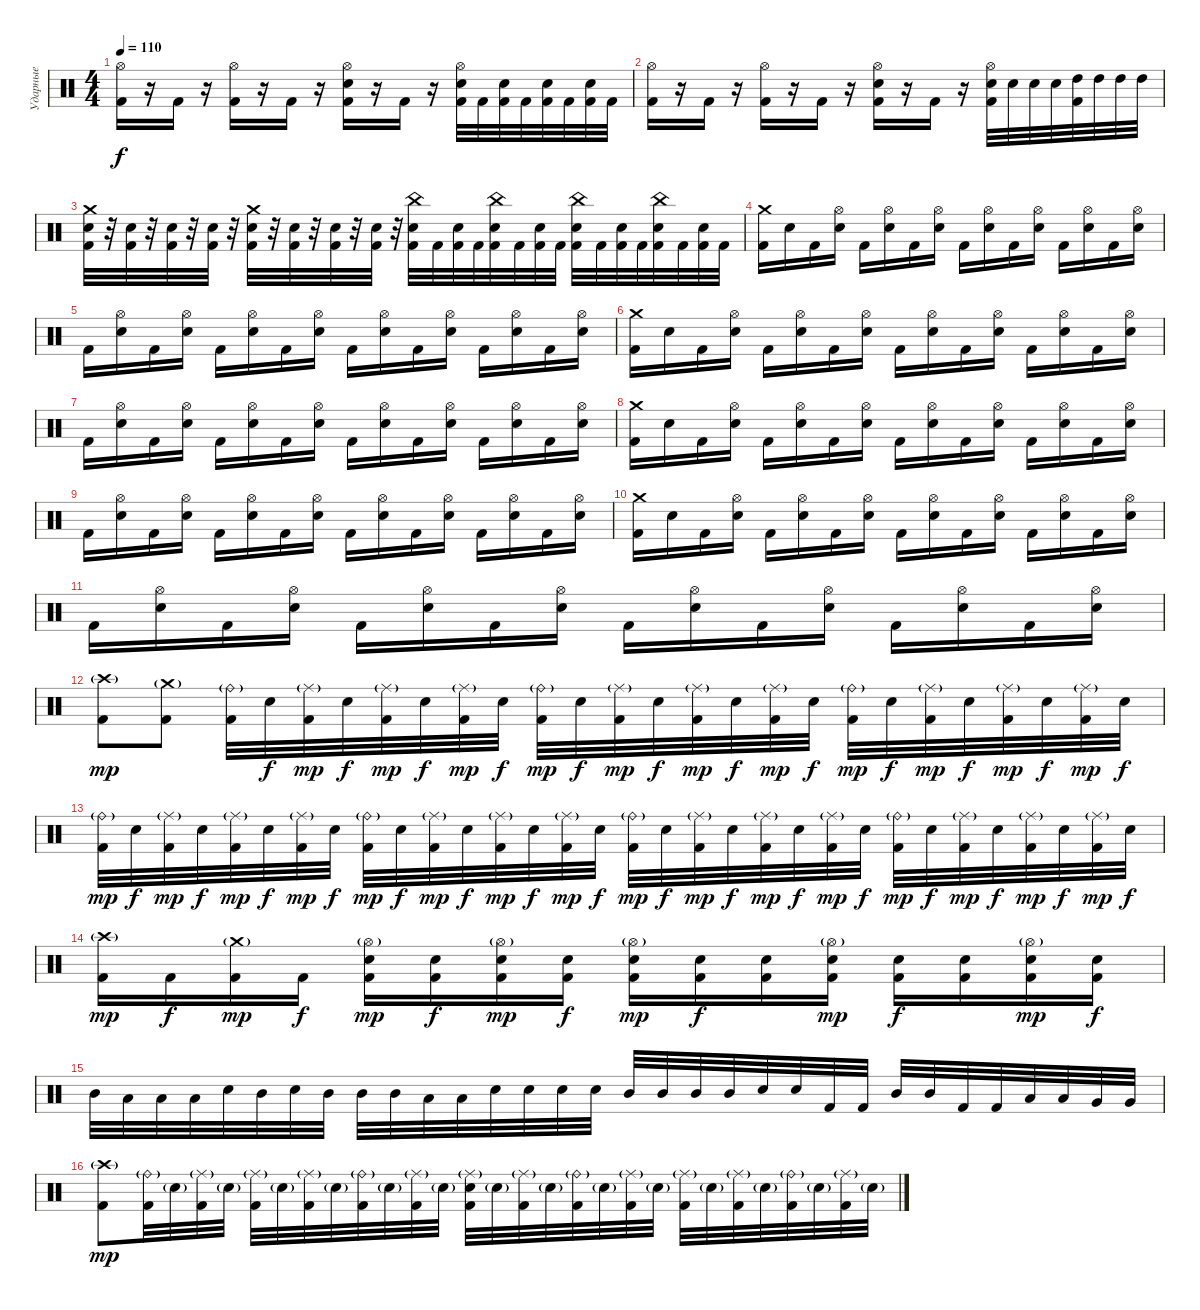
\track ("Ударные" "Ударные") {instrument percussion}
\staff {score}
\articulation defaults
\ts (4 4)
\tempo 110
\clef neutral
\ks c
("Hi-Hat (open)" "Kick (hit) 2").16{dy f} r.16 "Kick (hit) 2".16 r.16 ("Hi-Hat (open)" "Kick (hit) 2").16 r.16 "Kick (hit) 2".16 r.16 ("Hi-Hat (open)" "Electric Snare (hit)" "Kick (hit) 2").16 r.16 "Kick (hit) 2".16 r.16 ("Hi-Hat (open)" "Electric Snare (hit)" "Kick (hit) 2").32 "Kick (hit) 2".32 ("Electric Snare (hit)" "Kick (hit) 2").32 "Kick (hit) 2".32 ("Electric Snare (hit)" "Kick (hit) 2").32 "Kick (hit) 2".32 ("Electric Snare (hit)" "Kick (hit) 2").32 "Kick (hit) 2".32 |
("Hi-Hat (open)" "Kick (hit) 2").16 r.16 "Kick (hit) 2".16 r.16 ("Hi-Hat (open)" "Kick (hit) 2").16 r.16 "Kick (hit) 2".16 r.16 ("Hi-Hat (open)" "Electric Snare (hit)" "Kick (hit) 2").16 r.16 "Kick (hit) 2".16 r.16 ("Hi-Hat (open)" "Electric Snare (hit)" "Kick (hit) 2").32 "Electric Snare (hit)".32 "Electric Snare (hit)".32 "Electric Snare (hit)".32 ("High Tom (hit)" "Kick (hit) 2").32 "High Tom (hit)".32 "High Tom (hit)".32 "High Tom (hit)".32 |
("Crash medium (hit)" "Electric Snare (hit)" "Kick (hit) 2").32 r.32 ("Electric Snare (hit)" "Kick (hit) 2").32 r.32 ("Electric Snare (hit)" "Kick (hit) 2").32 r.32 ("Electric Snare (hit)" "Kick (hit) 2").32 r.32 ("Crash medium (hit)" "Electric Snare (hit)" "Kick (hit) 2").32 r.32 ("Electric Snare (hit)" "Kick (hit) 2").32 r.32 ("Electric Snare (hit)" "Kick (hit) 2").32 r.32 ("Electric Snare (hit)" "Kick (hit) 2").32 r.32 ("China (hit)" "Electric Snare (hit)" "Kick (hit) 2").32 "Kick (hit) 2".32 ("Electric Snare (hit)" "Kick (hit) 2").32 "Kick (hit) 2".32 ("China (hit)" "Electric Snare (hit)" "Kick (hit) 2").32 "Kick (hit) 2".32 ("Electric Snare (hit)" "Kick (hit) 2").32 "Kick (hit) 2".32 ("China (hit)" "Electric Snare (hit)" "Kick (hit) 2").32 "Kick (hit) 2".32 ("Electric Snare (hit)" "Kick (hit) 2").32 "Kick (hit) 2".32 ("China (hit)" "Electric Snare (hit)" "Kick (hit) 2").32 "Kick (hit) 2".32 ("Electric Snare (hit)" "Kick (hit) 2").32 "Kick (hit) 2".32 |
("Crash medium (hit)" "Kick (hit) 2").16 "Electric Snare (hit)".16 "Kick (hit) 2".16 ("Hi-Hat (open)" "Electric Snare (hit)").16 "Kick (hit) 2".16 ("Hi-Hat (open)" "Electric Snare (hit)").16 "Kick (hit) 2".16 ("Hi-Hat (open)" "Electric Snare (hit)").16 "Kick (hit) 2".16 ("Hi-Hat (open)" "Electric Snare (hit)").16 "Kick (hit) 2".16 ("Hi-Hat (open)" "Electric Snare (hit)").16 "Kick (hit) 2".16 ("Hi-Hat (open)" "Electric Snare (hit)").16 "Kick (hit) 2".16 ("Hi-Hat (open)" "Electric Snare (hit)").16 |
"Kick (hit) 2".16 ("Hi-Hat (open)" "Electric Snare (hit)").16 "Kick (hit) 2".16 ("Hi-Hat (open)" "Electric Snare (hit)").16 "Kick (hit) 2".16 ("Hi-Hat (open)" "Electric Snare (hit)").16 "Kick (hit) 2".16 ("Hi-Hat (open)" "Electric Snare (hit)").16 "Kick (hit) 2".16 ("Hi-Hat (open)" "Electric Snare (hit)").16 "Kick (hit) 2".16 ("Hi-Hat (open)" "Electric Snare (hit)").16 "Kick (hit) 2".16 ("Hi-Hat (open)" "Electric Snare (hit)").16 "Kick (hit) 2".16 ("Hi-Hat (open)" "Electric Snare (hit)").16 |
("Crash medium (hit)" "Kick (hit) 2").16 "Electric Snare (hit)".16 "Kick (hit) 2".16 ("Hi-Hat (open)" "Electric Snare (hit)").16 "Kick (hit) 2".16 ("Hi-Hat (open)" "Electric Snare (hit)").16 "Kick (hit) 2".16 ("Hi-Hat (open)" "Electric Snare (hit)").16 "Kick (hit) 2".16 ("Hi-Hat (open)" "Electric Snare (hit)").16 "Kick (hit) 2".16 ("Hi-Hat (open)" "Electric Snare (hit)").16 "Kick (hit) 2".16 ("Hi-Hat (open)" "Electric Snare (hit)").16 "Kick (hit) 2".16 ("Hi-Hat (open)" "Electric Snare (hit)").16 |
"Kick (hit) 2".16 ("Hi-Hat (open)" "Electric Snare (hit)").16 "Kick (hit) 2".16 ("Hi-Hat (open)" "Electric Snare (hit)").16 "Kick (hit) 2".16 ("Hi-Hat (open)" "Electric Snare (hit)").16 "Kick (hit) 2".16 ("Hi-Hat (open)" "Electric Snare (hit)").16 "Kick (hit) 2".16 ("Hi-Hat (open)" "Electric Snare (hit)").16 "Kick (hit) 2".16 ("Hi-Hat (open)" "Electric Snare (hit)").16 "Kick (hit) 2".16 ("Hi-Hat (open)" "Electric Snare (hit)").16 "Kick (hit) 2".16 ("Hi-Hat (open)" "Electric Snare (hit)").16 |
("Crash medium (hit)" "Kick (hit) 2").16 "Electric Snare (hit)".16 "Kick (hit) 2".16 ("Hi-Hat (open)" "Electric Snare (hit)").16 "Kick (hit) 2".16 ("Hi-Hat (open)" "Electric Snare (hit)").16 "Kick (hit) 2".16 ("Hi-Hat (open)" "Electric Snare (hit)").16 "Kick (hit) 2".16 ("Hi-Hat (open)" "Electric Snare (hit)").16 "Kick (hit) 2".16 ("Hi-Hat (open)" "Electric Snare (hit)").16 "Kick (hit) 2".16 ("Hi-Hat (open)" "Electric Snare (hit)").16 "Kick (hit) 2".16 ("Hi-Hat (open)" "Electric Snare (hit)").16 |
"Kick (hit) 2".16 ("Hi-Hat (open)" "Electric Snare (hit)").16 "Kick (hit) 2".16 ("Hi-Hat (open)" "Electric Snare (hit)").16 "Kick (hit) 2".16 ("Hi-Hat (open)" "Electric Snare (hit)").16 "Kick (hit) 2".16 ("Hi-Hat (open)" "Electric Snare (hit)").16 "Kick (hit) 2".16 ("Hi-Hat (open)" "Electric Snare (hit)").16 "Kick (hit) 2".16 ("Hi-Hat (open)" "Electric Snare (hit)").16 "Kick (hit) 2".16 ("Hi-Hat (open)" "Electric Snare (hit)").16 "Kick (hit) 2".16 ("Hi-Hat (open)" "Electric Snare (hit)").16 |
("Crash medium (hit)" "Kick (hit) 2").16 "Electric Snare (hit)".16 "Kick (hit) 2".16 ("Hi-Hat (open)" "Electric Snare (hit)").16 "Kick (hit) 2".16 ("Hi-Hat (open)" "Electric Snare (hit)").16 "Kick (hit) 2".16 ("Hi-Hat (open)" "Electric Snare (hit)").16 "Kick (hit) 2".16 ("Hi-Hat (open)" "Electric Snare (hit)").16 "Kick (hit) 2".16 ("Hi-Hat (open)" "Electric Snare (hit)").16 "Kick (hit) 2".16 ("Hi-Hat (open)" "Electric Snare (hit)").16 "Kick (hit) 2".16 ("Hi-Hat (open)" "Electric Snare (hit)").16 |
"Kick (hit) 2".16 ("Hi-Hat (open)" "Electric Snare (hit)").16 "Kick (hit) 2".16 ("Hi-Hat (open)" "Electric Snare (hit)").16 "Kick (hit) 2".16 ("Hi-Hat (open)" "Electric Snare (hit)").16 "Kick (hit) 2".16 ("Hi-Hat (open)" "Electric Snare (hit)").16 "Kick (hit) 2".16 ("Hi-Hat (open)" "Electric Snare (hit)").16 "Kick (hit) 2".16 ("Hi-Hat (open)" "Electric Snare (hit)").16 "Kick (hit) 2".16 ("Hi-Hat (open)" "Electric Snare (hit)").16 "Kick (hit) 2".16 ("Hi-Hat (open)" "Electric Snare (hit)").16 |
("Crash high (hit)"{g} "Kick (hit) 2").8{dy mp} ("Crash medium (hit)"{g} "Kick (hit) 2").8 ("Ride (bell)"{g} "Kick (hit) 2").32 "Electric Snare (hit)".32{dy f} ("Ride (middle)"{g} "Kick (hit) 2").32{dy mp} "Electric Snare (hit)".32{dy f} ("Ride (middle)"{g} "Kick (hit) 2").32{dy mp} "Electric Snare (hit)".32{dy f} ("Ride (middle)"{g} "Kick (hit) 2").32{dy mp} "Electric Snare (hit)".32{dy f} ("Ride (bell)"{g} "Kick (hit) 2").32{dy mp} "Electric Snare (hit)".32{dy f} ("Ride (middle)"{g} "Kick (hit) 2").32{dy mp} "Electric Snare (hit)".32{dy f} ("Ride (middle)"{g} "Kick (hit) 2").32{dy mp} "Electric Snare (hit)".32{dy f} ("Ride (middle)"{g} "Kick (hit) 2").32{dy mp} "Electric Snare (hit)".32{dy f} ("Ride (bell)"{g} "Kick (hit) 2").32{dy mp} "Electric Snare (hit)".32{dy f} ("Ride (middle)"{g} "Kick (hit) 2").32{dy mp} "Electric Snare (hit)".32{dy f} ("Ride (middle)"{g} "Kick (hit) 2").32{dy mp} "Electric Snare (hit)".32{dy f} ("Ride (middle)"{g} "Kick (hit) 2").32{dy mp} "Electric Snare (hit)".32{dy f} |
("Ride (bell)"{g} "Kick (hit) 2").32{dy mp} "Electric Snare (hit)".32{dy f} ("Ride (middle)"{g} "Kick (hit) 2").32{dy mp} "Electric Snare (hit)".32{dy f} ("Ride (middle)"{g} "Kick (hit) 2").32{dy mp} "Electric Snare (hit)".32{dy f} ("Ride (middle)"{g} "Kick (hit) 2").32{dy mp} "Electric Snare (hit)".32{dy f} ("Ride (bell)"{g} "Kick (hit) 2").32{dy mp} "Electric Snare (hit)".32{dy f} ("Ride (middle)"{g} "Kick (hit) 2").32{dy mp} "Electric Snare (hit)".32{dy f} ("Ride (middle)"{g} "Kick (hit) 2").32{dy mp} "Electric Snare (hit)".32{dy f} ("Ride (middle)"{g} "Kick (hit) 2").32{dy mp} "Electric Snare (hit)".32{dy f} ("Ride (bell)"{g} "Kick (hit) 2").32{dy mp} "Electric Snare (hit)".32{dy f} ("Ride (middle)"{g} "Kick (hit) 2").32{dy mp} "Electric Snare (hit)".32{dy f} ("Ride (middle)"{g} "Kick (hit) 2").32{dy mp} "Electric Snare (hit)".32{dy f} ("Ride (middle)"{g} "Kick (hit) 2").32{dy mp} "Electric Snare (hit)".32{dy f} ("Ride (bell)"{g} "Kick (hit) 2").32{dy mp} "Electric Snare (hit)".32{dy f} ("Ride (middle)"{g} "Kick (hit) 2").32{dy mp} "Electric Snare (hit)".32{dy f} ("Ride (middle)"{g} "Kick (hit) 2").32{dy mp} "Electric Snare (hit)".32{dy f} ("Ride (middle)"{g} "Kick (hit) 2").32{dy mp} "Electric Snare (hit)".32{dy f} |
("Crash high (hit)"{g} "Kick (hit) 2").16{dy mp} "Kick (hit) 2".16{dy f} ("Crash medium (hit)"{g} "Kick (hit) 2").16{dy mp} "Kick (hit) 2".16{dy f} ("Hi-Hat (open)"{g} "Electric Snare (hit)" "Kick (hit) 2").16{dy mp} ("Electric Snare (hit)" "Kick (hit) 2").16{dy f} ("Hi-Hat (open)"{g} "Electric Snare (hit)" "Kick (hit) 2").16{dy mp} ("Electric Snare (hit)" "Kick (hit) 2").16{dy f} ("Hi-Hat (open)"{g} "Electric Snare (hit)" "Kick (hit) 2").16{dy mp} ("Electric Snare (hit)" "Kick (hit) 2").16{dy f} ("Electric Snare (hit)" "Kick (hit) 2").16 ("Hi-Hat (open)"{g} "Electric Snare (hit)" "Kick (hit) 2").16{dy mp} ("Electric Snare (hit)" "Kick (hit) 2").16{dy f} ("Electric Snare (hit)" "Kick (hit) 2").16 ("Hi-Hat (open)"{g} "Electric Snare (hit)" "Kick (hit) 2").16{dy mp} ("Electric Snare (hit)" "Kick (hit) 2").16{dy f} |
"Mid Tom (hit)".32 "Low Tom (hit)".32 "Low Tom (hit)".32 "Low Tom (hit)".32 "Electric Snare (hit)".32 "Mid Tom (hit)".32 "Electric Snare (hit)".32 "Mid Tom (hit)".32 "Mid Tom (hit)".32 "Mid Tom (hit)".32 "Low Tom (hit)".32 "Low Tom (hit)".32 "Electric Snare (hit)".32 "Electric Snare (hit)".32 "Electric Snare (hit)".32 "Electric Snare (hit)".32 "Mid Tom (hit)".32 "Mid Tom (hit)".32 "Mid Tom (hit)".32 "Mid Tom (hit)".32 "Electric Snare (hit)".32 "Electric Snare (hit)".32 "Kick (hit) 2".32 "Kick (hit) 2".32 "Mid Tom (hit)".32 "Mid Tom (hit)".32 "Kick (hit) 2".32 "Kick (hit) 2".32 "Low Tom (hit)".32 "Low Tom (hit)".32 "Very Low Tom (hit)".32 "Very Low Tom (hit)".32 |
("Crash high (hit)"{g} "Kick (hit) 2").8{dy mp} ("Ride (bell)"{g} "Kick (hit) 2").32 "Electric Snare (hit)"{g}.32 ("Ride (middle)"{g} "Kick (hit) 2").32 "Electric Snare (hit)"{g}.32 ("Ride (middle)"{g} "Kick (hit) 2").32 "Electric Snare (hit)"{g}.32 ("Ride (middle)"{g} "Kick (hit) 2").32 "Electric Snare (hit)"{g}.32 ("Ride (bell)"{g} "Kick (hit) 2").32 "Electric Snare (hit)"{g}.32 ("Ride (middle)"{g} "Kick (hit) 2").32 "Electric Snare (hit)"{g}.32 ("Ride (middle)"{g} "Electric Snare (hit)" "Kick (hit) 2").32 "Electric Snare (hit)"{g}.32 ("Ride (middle)"{g} "Kick (hit) 2").32 "Electric Snare (hit)"{g}.32 ("Ride (bell)"{g} "Kick (hit) 2").32 "Electric Snare (hit)"{g}.32 ("Ride (middle)"{g} "Kick (hit) 2").32 "Electric Snare (hit)"{g}.32 ("Ride (middle)"{g} "Kick (hit) 2").32 "Electric Snare (hit)"{g}.32 ("Ride (middle)"{g} "Kick (hit) 2").32 "Electric Snare (hit)"{g}.32 ("Ride (bell)"{g} "Kick (hit) 2").32 "Electric Snare (hit)"{g}.32 ("Ride (middle)"{g} "Kick (hit) 2").32 "Electric Snare (hit)"{g}.32
